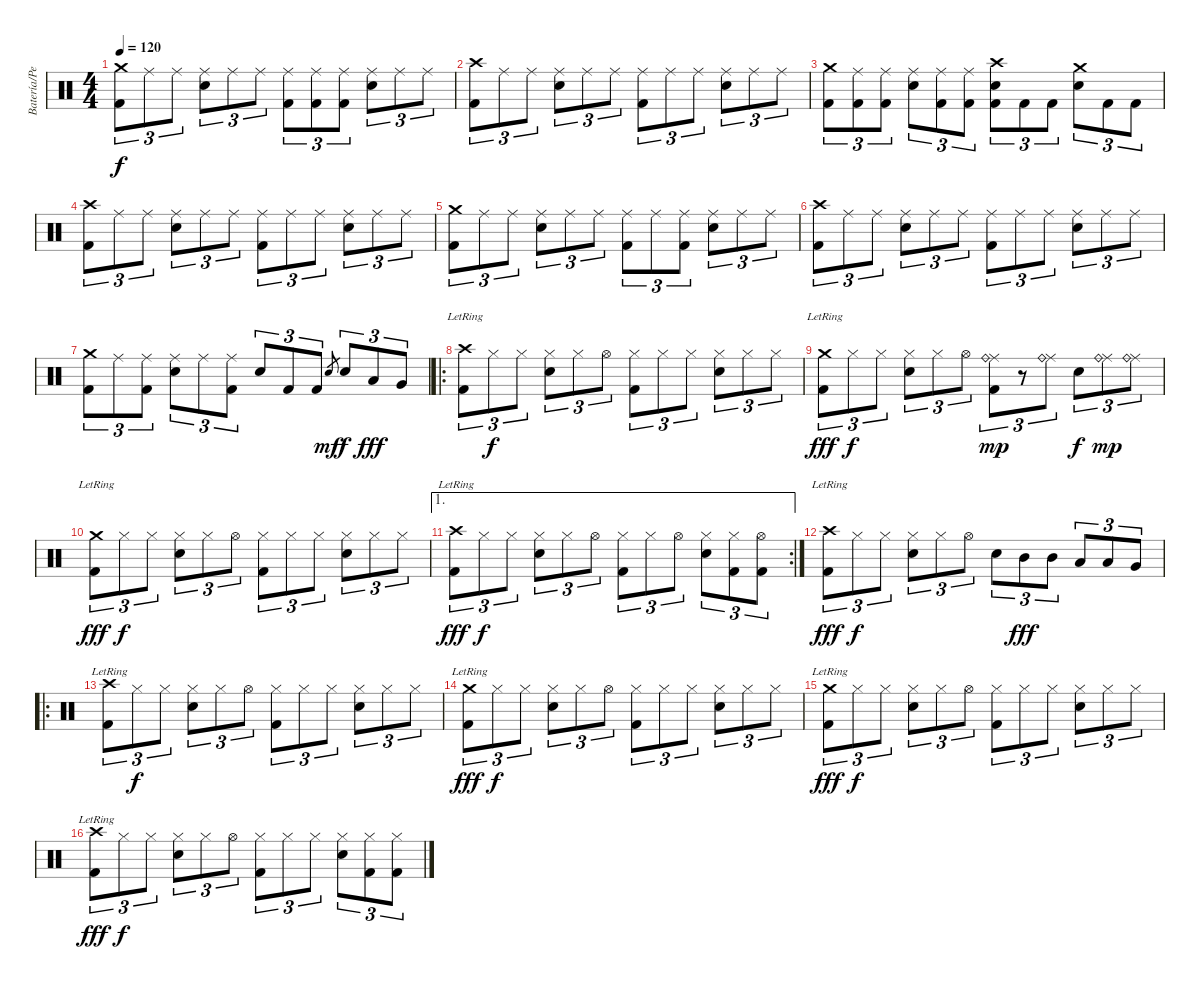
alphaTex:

\track ("Batería/Perc." "Batería/Pe") {instrument percussion}
\staff {score}
\articulation defaults
\ts (4 4)
\tempo 120
\clef neutral
\ks c
("Crash medium (hit)" "Kick (hit) 2").8{tu (3 2) dy f volume 14} "Ride (middle)".8{tu (3 2)} "Ride (middle)".8{tu (3 2)} ("Ride (middle)" "Snare (hit) 2").8{tu (3 2)} "Ride (middle)".8{tu (3 2)} "Ride (middle)".8{tu (3 2)} ("Ride (middle)" "Kick (hit) 2").8{tu (3 2)} ("Ride (middle)" "Kick (hit) 2").8{tu (3 2)} ("Ride (middle)" "Kick (hit) 2").8{tu (3 2)} ("Ride (middle)" "Snare (hit) 2").8{tu (3 2)} "Ride (middle)".8{tu (3 2)} "Ride (middle)".8{tu (3 2)} |
("Crash high (hit)" "Kick (hit) 2").8{tu (3 2) volume 14} "Ride (middle)".8{tu (3 2)} "Ride (middle)".8{tu (3 2)} ("Ride (middle)" "Snare (hit) 2").8{tu (3 2)} "Ride (middle)".8{tu (3 2)} "Ride (middle)".8{tu (3 2)} ("Ride (middle)" "Kick (hit) 2").8{tu (3 2)} "Ride (middle)".8{tu (3 2)} "Ride (middle)".8{tu (3 2)} ("Ride (middle)" "Snare (hit) 2").8{tu (3 2)} "Ride (middle)".8{tu (3 2)} "Ride (middle)".8{tu (3 2)} |
("Crash medium (hit)" "Kick (hit) 2").8{tu (3 2) volume 14} ("Ride (middle)" "Kick (hit) 2").8{tu (3 2)} ("Ride (middle)" "Kick (hit) 2").8{tu (3 2)} ("Ride (middle)" "Snare (hit) 2").8{tu (3 2)} ("Ride (middle)" "Kick (hit) 2").8{tu (3 2)} ("Ride (middle)" "Kick (hit) 2").8{tu (3 2)} ("Crash high (hit)" "Kick (hit) 2" "Snare (hit) 2").8{tu (3 2)} "Kick (hit) 2".8{tu (3 2)} "Kick (hit) 2".8{tu (3 2)} ("Crash medium (hit)" "Snare (hit) 2").8{tu (3 2)} "Kick (hit) 2".8{tu (3 2)} "Kick (hit) 2".8{tu (3 2)} |
("Crash high (hit)" "Kick (hit) 2").8{tu (3 2) volume 14} "Ride (middle)".8{tu (3 2)} "Ride (middle)".8{tu (3 2)} ("Ride (middle)" "Snare (hit) 2").8{tu (3 2)} "Ride (middle)".8{tu (3 2)} "Ride (middle)".8{tu (3 2)} ("Ride (middle)" "Kick (hit) 2").8{tu (3 2)} "Ride (middle)".8{tu (3 2)} "Ride (middle)".8{tu (3 2)} ("Ride (middle)" "Snare (hit) 2").8{tu (3 2)} "Ride (middle)".8{tu (3 2)} "Ride (middle)".8{tu (3 2)} |
("Crash medium (hit)" "Kick (hit) 2").8{tu (3 2) volume 14} "Ride (middle)".8{tu (3 2)} "Ride (middle)".8{tu (3 2)} ("Ride (middle)" "Snare (hit) 2").8{tu (3 2)} "Ride (middle)".8{tu (3 2)} "Ride (middle)".8{tu (3 2)} ("Ride (middle)" "Kick (hit) 2").8{tu (3 2)} "Ride (middle)".8{tu (3 2)} ("Ride (middle)" "Kick (hit) 2").8{tu (3 2)} ("Ride (middle)" "Snare (hit) 2").8{tu (3 2)} "Ride (middle)".8{tu (3 2)} "Ride (middle)".8{tu (3 2)} |
("Crash high (hit)" "Kick (hit) 2").8{tu (3 2) volume 14} "Ride (middle)".8{tu (3 2)} "Ride (middle)".8{tu (3 2)} ("Ride (middle)" "Snare (hit) 2").8{tu (3 2)} "Ride (middle)".8{tu (3 2)} "Ride (middle)".8{tu (3 2)} ("Ride (middle)" "Kick (hit) 2").8{tu (3 2)} "Ride (middle)".8{tu (3 2)} "Ride (middle)".8{tu (3 2)} ("Ride (middle)" "Snare (hit) 2").8{tu (3 2)} "Ride (middle)".8{tu (3 2)} "Ride (middle)".8{tu (3 2)} |
("Crash medium (hit)" "Kick (hit) 2").8{tu (3 2) volume 14} "Ride (middle)".8{tu (3 2)} ("Ride (middle)" "Kick (hit) 2").8{tu (3 2)} ("Ride (middle)" "Snare (hit) 2").8{tu (3 2)} "Ride (middle)".8{tu (3 2)} ("Ride (middle)" "Kick (hit) 2").8{tu (3 2)} "Snare (hit) 2".8{tu (3 2)} "Kick (hit) 2".8{tu (3 2)} "Kick (hit) 2".8{tu (3 2)} "Snare (hit) 2".8{gr dy mf} "Snare (hit) 2".8{tu (3 2) dy f} "Low Tom (hit)".8{tu (3 2) dy fff} "Very Low Tom (hit)".8{tu (3 2)} |
\ro
("Crash high (hit)"{lr} "Kick (hit) 2").8{tu (3 2) volume 14} "Hi-Hat (closed)".8{tu (3 2) dy f} "Hi-Hat (closed)".8{tu (3 2)} ("Hi-Hat (closed)" "Snare (hit) 2").8{tu (3 2)} "Hi-Hat (closed)".8{tu (3 2)} "Hi-Hat (open)".8{tu (3 2)} ("Hi-Hat (closed)" "Kick (hit) 2").8{tu (3 2)} "Hi-Hat (closed)".8{tu (3 2)} "Hi-Hat (closed)".8{tu (3 2)} ("Hi-Hat (closed)" "Snare (hit) 2").8{tu (3 2)} "Hi-Hat (closed)".8{tu (3 2)} "Hi-Hat (closed)".8{tu (3 2)} |
("Crash medium (hit)"{lr} "Kick (hit) 2").8{tu (3 2) dy fff volume 14} "Hi-Hat (closed)".8{tu (3 2) dy f} "Hi-Hat (closed)".8{tu (3 2)} ("Hi-Hat (closed)" "Snare (hit) 2").8{tu (3 2)} "Hi-Hat (closed)".8{tu (3 2)} "Hi-Hat (open)".8{tu (3 2)} ("Ride (middle)" "Ride (bell)" "Kick (hit) 2").8{tu (3 2) dy mp} r.8{tu (3 2)} ("Ride (middle)" "Ride (bell)").8{tu (3 2)} "Snare (hit) 2".8{tu (3 2) dy f} ("Ride (middle)" "Ride (bell)").8{tu (3 2) dy mp} ("Ride (middle)" "Ride (bell)").8{tu (3 2)} |
("Crash medium (hit)"{lr} "Kick (hit) 2").8{tu (3 2) dy fff volume 14} "Hi-Hat (closed)".8{tu (3 2) dy f} "Hi-Hat (closed)".8{tu (3 2)} ("Hi-Hat (closed)" "Snare (hit) 2").8{tu (3 2)} "Hi-Hat (closed)".8{tu (3 2)} "Hi-Hat (open)".8{tu (3 2)} ("Hi-Hat (closed)" "Kick (hit) 2").8{tu (3 2)} "Hi-Hat (closed)".8{tu (3 2)} "Hi-Hat (closed)".8{tu (3 2)} ("Hi-Hat (closed)" "Snare (hit) 2").8{tu (3 2)} "Hi-Hat (closed)".8{tu (3 2)} "Hi-Hat (closed)".8{tu (3 2)} |
\ae 1
\rc 2
("Crash high (hit)"{lr} "Kick (hit) 2").8{tu (3 2) dy fff volume 14} "Hi-Hat (closed)".8{tu (3 2) dy f} "Hi-Hat (closed)".8{tu (3 2)} ("Hi-Hat (closed)" "Snare (hit) 2").8{tu (3 2)} "Hi-Hat (closed)".8{tu (3 2)} "Hi-Hat (open)".8{tu (3 2)} ("Hi-Hat (closed)" "Kick (hit) 2").8{tu (3 2)} "Hi-Hat (closed)".8{tu (3 2)} "Hi-Hat (open)".8{tu (3 2)} ("Hi-Hat (closed)" "Snare (hit) 2").8{tu (3 2)} ("Hi-Hat (closed)" "Kick (hit) 2").8{tu (3 2)} ("Hi-Hat (open)" "Kick (hit) 2").8{tu (3 2)} |
("Crash high (hit)"{lr} "Kick (hit) 2").8{tu (3 2) dy fff volume 14} "Hi-Hat (closed)".8{tu (3 2) dy f} "Hi-Hat (closed)".8{tu (3 2)} ("Hi-Hat (closed)" "Snare (hit) 2").8{tu (3 2)} "Hi-Hat (closed)".8{tu (3 2)} "Hi-Hat (open)".8{tu (3 2)} "Snare (hit) 2".8{tu (3 2)} "Mid Tom (hit)".8{tu (3 2) dy fff} "Mid Tom (hit)".8{tu (3 2)} "Low Tom (hit)".8{tu (3 2)} "Low Tom (hit)".8{tu (3 2)} "Very Low Tom (hit)".8{tu (3 2)} |
\ro
("Crash high (hit)"{lr} "Kick (hit) 2").8{tu (3 2) volume 14} "Hi-Hat (closed)".8{tu (3 2) dy f} "Hi-Hat (closed)".8{tu (3 2)} ("Hi-Hat (closed)" "Snare (hit) 2").8{tu (3 2)} "Hi-Hat (closed)".8{tu (3 2)} "Hi-Hat (open)".8{tu (3 2)} ("Hi-Hat (closed)" "Kick (hit) 2").8{tu (3 2)} "Hi-Hat (closed)".8{tu (3 2)} "Hi-Hat (closed)".8{tu (3 2)} ("Hi-Hat (closed)" "Snare (hit) 2").8{tu (3 2)} "Hi-Hat (closed)".8{tu (3 2)} "Hi-Hat (closed)".8{tu (3 2)} |
("Crash medium (hit)"{lr} "Kick (hit) 2").8{tu (3 2) dy fff volume 14} "Hi-Hat (closed)".8{tu (3 2) dy f} "Hi-Hat (closed)".8{tu (3 2)} ("Hi-Hat (closed)" "Snare (hit) 2").8{tu (3 2)} "Hi-Hat (closed)".8{tu (3 2)} "Hi-Hat (open)".8{tu (3 2)} ("Hi-Hat (closed)" "Kick (hit) 2").8{tu (3 2)} "Hi-Hat (closed)".8{tu (3 2)} "Hi-Hat (closed)".8{tu (3 2)} ("Hi-Hat (closed)" "Snare (hit) 2").8{tu (3 2)} "Hi-Hat (closed)".8{tu (3 2)} "Hi-Hat (closed)".8{tu (3 2)} |
("Crash medium (hit)"{lr} "Kick (hit) 2").8{tu (3 2) dy fff volume 14} "Hi-Hat (closed)".8{tu (3 2) dy f} "Hi-Hat (closed)".8{tu (3 2)} ("Hi-Hat (closed)" "Snare (hit) 2").8{tu (3 2)} "Hi-Hat (closed)".8{tu (3 2)} "Hi-Hat (open)".8{tu (3 2)} ("Hi-Hat (closed)" "Kick (hit) 2").8{tu (3 2)} "Hi-Hat (closed)".8{tu (3 2)} "Hi-Hat (closed)".8{tu (3 2)} ("Hi-Hat (closed)" "Snare (hit) 2").8{tu (3 2)} "Hi-Hat (closed)".8{tu (3 2)} "Hi-Hat (closed)".8{tu (3 2)} |
("Crash high (hit)"{lr} "Kick (hit) 2").8{tu (3 2) dy fff volume 14} "Hi-Hat (closed)".8{tu (3 2) dy f} "Hi-Hat (closed)".8{tu (3 2)} ("Hi-Hat (closed)" "Snare (hit) 2").8{tu (3 2)} "Hi-Hat (closed)".8{tu (3 2)} "Hi-Hat (open)".8{tu (3 2)} ("Hi-Hat (closed)" "Kick (hit) 2").8{tu (3 2)} "Hi-Hat (closed)".8{tu (3 2)} "Hi-Hat (closed)".8{tu (3 2)} ("Hi-Hat (closed)" "Snare (hit) 2").8{tu (3 2)} ("Hi-Hat (closed)" "Kick (hit) 2").8{tu (3 2)} ("Hi-Hat (closed)" "Kick (hit) 2").8{tu (3 2)}
